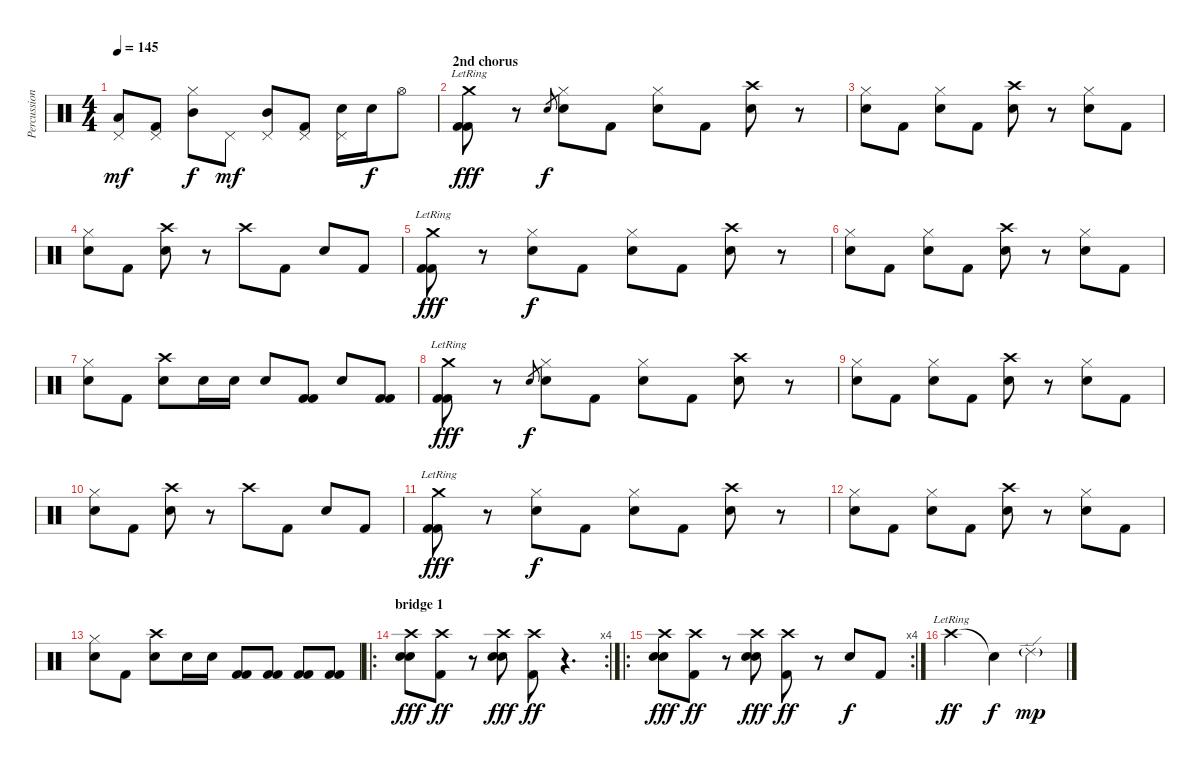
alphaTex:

\track ("Percussion" "Percussion") {instrument percussion}
\staff {score}
\articulation defaults
\ts (4 4)
\tempo 145
\clef neutral
\ks c
("Pedal Hi-Hat (hit)" "Low Tom (hit)").8{dy mf} ("Pedal Hi-Hat (hit)" "Kick (hit) 2").8 ("Hi-Hat (closed)" "Mid Tom (hit)").8{dy f} "Pedal Hi-Hat (hit)".8{dy mf} ("Pedal Hi-Hat (hit)" "Mid Tom (hit)").8 ("Pedal Hi-Hat (hit)" "Kick (hit) 2").8 ("Pedal Hi-Hat (hit)" "Snare (hit) 2").16 "Snare (hit) 2".16{dy f} "Hi-Hat (open)".8 |
\section ("" "2nd chorus")
("Crash medium (hit)"{lr} "Kick (hit) 2" "Kick (hit) 2").8{dy fff} r.8 "Electric Snare (hit)".8{gr dy f} ("Hi-Hat (closed)" "Electric Snare (hit)").8 "Kick (hit) 2".8 ("Hi-Hat (closed)" "Electric Snare (hit)").8 "Kick (hit) 2".8 ("Crash high (hit)" "Snare (hit) 2").8 r.8 |
("Hi-Hat (closed)" "Electric Snare (hit)").8 "Kick (hit) 2".8 ("Hi-Hat (closed)" "Electric Snare (hit)").8 "Kick (hit) 2".8 ("Crash high (hit)" "Snare (hit) 2").8 r.8 ("Hi-Hat (closed)" "Electric Snare (hit)").8 "Kick (hit) 2".8 |
("Hi-Hat (closed)" "Electric Snare (hit)").8 "Kick (hit) 2".8 ("Crash high (hit)" "Snare (hit) 2").8 r.8 "Crash high (hit)".8 "Kick (hit) 2".8 "Snare (hit) 2".8 "Kick (hit) 2".8 |
("Crash medium (hit)"{lr} "Kick (hit) 2" "Kick (hit) 2").8{dy fff} r.8 ("Hi-Hat (closed)" "Electric Snare (hit)").8{dy f} "Kick (hit) 2".8 ("Hi-Hat (closed)" "Electric Snare (hit)").8 "Kick (hit) 2".8 ("Crash high (hit)" "Snare (hit) 2").8 r.8 |
("Hi-Hat (closed)" "Electric Snare (hit)").8 "Kick (hit) 2".8 ("Hi-Hat (closed)" "Electric Snare (hit)").8 "Kick (hit) 2".8 ("Crash high (hit)" "Snare (hit) 2").8 r.8 ("Hi-Hat (closed)" "Electric Snare (hit)").8 "Kick (hit) 2".8 |
("Hi-Hat (closed)" "Electric Snare (hit)").8 "Kick (hit) 2".8 ("Crash high (hit)" "Snare (hit) 2").8 "Snare (hit) 2".16 "Snare (hit) 2".16 "Snare (hit) 2".8 ("Kick (hit) 2" "Kick (hit) 2").8 "Snare (hit) 2".8 ("Kick (hit) 2" "Kick (hit) 2").8 |
("Crash medium (hit)"{lr} "Kick (hit) 2" "Kick (hit) 2").8{dy fff} r.8 "Electric Snare (hit)".8{gr dy f} ("Hi-Hat (closed)" "Electric Snare (hit)").8 "Kick (hit) 2".8 ("Hi-Hat (closed)" "Electric Snare (hit)").8 "Kick (hit) 2".8 ("Crash high (hit)" "Snare (hit) 2").8 r.8 |
("Hi-Hat (closed)" "Electric Snare (hit)").8 "Kick (hit) 2".8 ("Hi-Hat (closed)" "Electric Snare (hit)").8 "Kick (hit) 2".8 ("Crash high (hit)" "Snare (hit) 2").8 r.8 ("Hi-Hat (closed)" "Electric Snare (hit)").8 "Kick (hit) 2".8 |
("Hi-Hat (closed)" "Electric Snare (hit)").8 "Kick (hit) 2".8 ("Crash high (hit)" "Snare (hit) 2").8 r.8 "Crash high (hit)".8 "Kick (hit) 2".8 "Snare (hit) 2".8 "Kick (hit) 2".8 |
("Crash medium (hit)"{lr} "Kick (hit) 2" "Kick (hit) 2").8{dy fff} r.8 ("Hi-Hat (closed)" "Electric Snare (hit)").8{dy f} "Kick (hit) 2".8 ("Hi-Hat (closed)" "Electric Snare (hit)").8 "Kick (hit) 2".8 ("Crash high (hit)" "Snare (hit) 2").8 r.8 |
("Hi-Hat (closed)" "Electric Snare (hit)").8 "Kick (hit) 2".8 ("Hi-Hat (closed)" "Electric Snare (hit)").8 "Kick (hit) 2".8 ("Crash high (hit)" "Snare (hit) 2").8 r.8 ("Hi-Hat (closed)" "Electric Snare (hit)").8 "Kick (hit) 2".8 |
("Hi-Hat (closed)" "Electric Snare (hit)").8 "Kick (hit) 2".8 ("Crash high (hit)" "Snare (hit) 2").8 "Snare (hit) 2".16 "Snare (hit) 2".16 ("Kick (hit) 2" "Kick (hit) 2").8 ("Kick (hit) 2" "Kick (hit) 2").8 ("Kick (hit) 2" "Kick (hit) 2").8 ("Kick (hit) 2" "Kick (hit) 2").8 |
\ro
\rc 4
\section ("" "bridge 1")
("Crash high (hit)" "Snare (hit) 2" "Snare (hit) 2").8{dy fff} ("Crash high (hit)" "Kick (hit) 2").8{dy ff} r.8 ("Crash high (hit)" "Snare (hit) 2" "Snare (hit) 2").8{dy fff} ("Crash high (hit)" "Kick (hit) 2").8{dy ff} r.4{d} |
\ro
\rc 4
("Crash high (hit)" "Snare (hit) 2" "Snare (hit) 2").8{dy fff} ("Crash high (hit)" "Kick (hit) 2").8{dy ff} r.8 ("Crash high (hit)" "Snare (hit) 2" "Snare (hit) 2").8{dy fff} ("Crash high (hit)" "Kick (hit) 2").8{dy ff} r.8 "Electric Snare (hit)".8{dy f} "Kick (hit) 2".8 |
\section ("" "")
"Crash high (hit)"{lr}.2{dy ff} "Snare (hit)"{t}.4{dy f} "Ride (edge) 2"{g}.4{dy mp}
